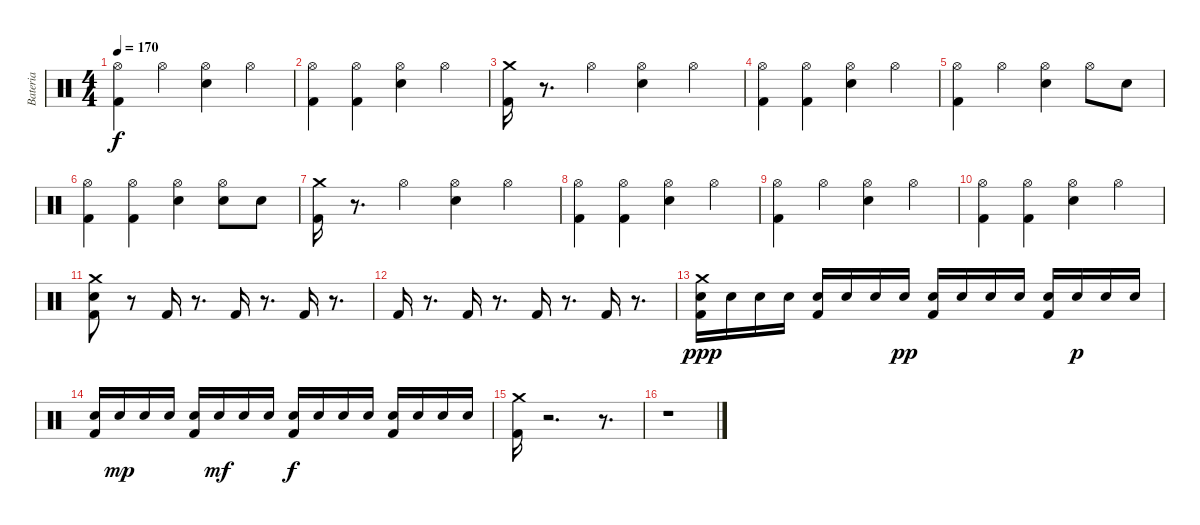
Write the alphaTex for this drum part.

\track ("Bateria" "Bateria") {instrument percussion}
\staff {score}
\articulation defaults
\ts (4 4)
\tempo 170
\clef neutral
\ks c
("Hi-Hat (open)" "Kick (hit) 2").4{dy f} "Hi-Hat (open)".4 ("Hi-Hat (open)" "Electric Snare (hit)").4 "Hi-Hat (open)".4 |
("Hi-Hat (open)" "Kick (hit) 2").4 ("Hi-Hat (open)" "Kick (hit) 2").4 ("Hi-Hat (open)" "Electric Snare (hit)").4 "Hi-Hat (open)".4 |
("Crash medium (hit)" "Kick (hit) 2").16 r.8{d} "Hi-Hat (open)".4 ("Hi-Hat (open)" "Electric Snare (hit)").4 "Hi-Hat (open)".4 |
("Hi-Hat (open)" "Kick (hit) 2").4 ("Hi-Hat (open)" "Kick (hit) 2").4 ("Hi-Hat (open)" "Electric Snare (hit)").4 "Hi-Hat (open)".4 |
("Hi-Hat (open)" "Kick (hit) 2").4 "Hi-Hat (open)".4 ("Hi-Hat (open)" "Electric Snare (hit)").4 "Hi-Hat (open)".8 "Electric Snare (hit)".8 |
("Hi-Hat (open)" "Kick (hit) 2").4 ("Hi-Hat (open)" "Kick (hit) 2").4 ("Hi-Hat (open)" "Electric Snare (hit)").4 ("Hi-Hat (open)" "Electric Snare (hit)").8 "Electric Snare (hit)".8 |
("Crash medium (hit)" "Kick (hit) 2").16 r.8{d} "Hi-Hat (open)".4 ("Hi-Hat (open)" "Electric Snare (hit)").4 "Hi-Hat (open)".4 |
("Hi-Hat (open)" "Kick (hit) 2").4 ("Hi-Hat (open)" "Kick (hit) 2").4 ("Hi-Hat (open)" "Electric Snare (hit)").4 "Hi-Hat (open)".4 |
("Hi-Hat (open)" "Kick (hit) 2").4 "Hi-Hat (open)".4 ("Hi-Hat (open)" "Electric Snare (hit)").4 "Hi-Hat (open)".4 |
("Hi-Hat (open)" "Kick (hit) 2").4 ("Hi-Hat (open)" "Kick (hit) 2").4 ("Hi-Hat (open)" "Electric Snare (hit)").4 "Hi-Hat (open)".4 |
("Crash medium (hit)" "Electric Snare (hit)" "Kick (hit) 2").8 r.8 "Kick (hit) 2".16 r.8{d} "Kick (hit) 2".16 r.8{d} "Kick (hit) 2".16 r.8{d} |
"Kick (hit) 2".16 r.8{d} "Kick (hit) 2".16 r.8{d} "Kick (hit) 2".16 r.8{d} "Kick (hit) 2".16 r.8{d} |
("Crash medium (hit)" "Kick (hit) 2" "Electric Snare (hit)").16{dy ppp} "Electric Snare (hit)".16 "Electric Snare (hit)".16 "Electric Snare (hit)".16 ("Kick (hit) 2" "Electric Snare (hit)").16 "Electric Snare (hit)".16 "Electric Snare (hit)".16 "Electric Snare (hit)".16{dy pp} ("Kick (hit) 2" "Electric Snare (hit)").16 "Electric Snare (hit)".16 "Electric Snare (hit)".16 "Electric Snare (hit)".16 ("Kick (hit) 2" "Electric Snare (hit)").16 "Electric Snare (hit)".16{dy p} "Electric Snare (hit)".16 "Electric Snare (hit)".16 |
("Kick (hit) 2" "Electric Snare (hit)").16 "Electric Snare (hit)".16{dy mp} "Electric Snare (hit)".16 "Electric Snare (hit)".16 ("Kick (hit) 2" "Electric Snare (hit)").16 "Electric Snare (hit)".16{dy mf} "Electric Snare (hit)".16 "Electric Snare (hit)".16 ("Kick (hit) 2" "Electric Snare (hit)").16{dy f} "Electric Snare (hit)".16 "Electric Snare (hit)".16 "Electric Snare (hit)".16 ("Kick (hit) 2" "Electric Snare (hit)").16 "Electric Snare (hit)".16 "Electric Snare (hit)".16 "Electric Snare (hit)".16 |
("Crash medium (hit)" "Kick (hit) 2").16 r.2{d} r.8{d} |
r.1
